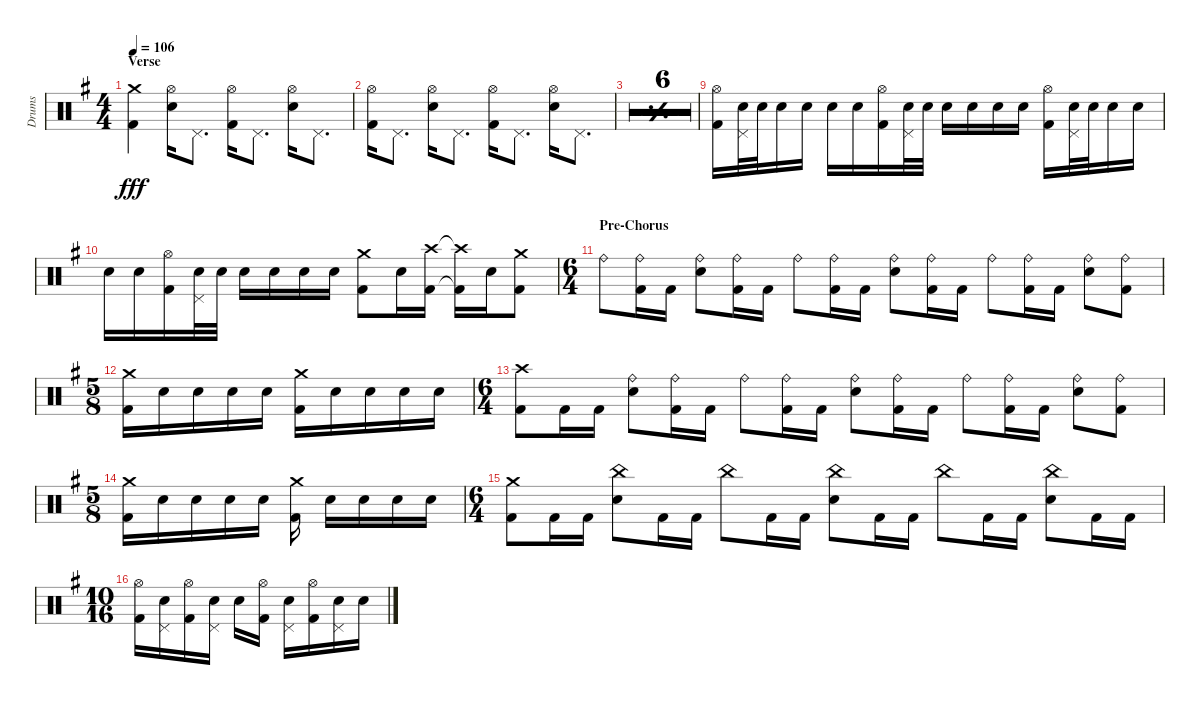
\defaultSystemsLayout 4
\bracketExtendMode groupsimilarinstruments
\otherSystemsTrackNameOrientation horizontal
\track ("Drumkit" "Drums") {multiBarRest instrument percussion}
\staff {score}
\articulation defaults
\ts (4 4)
\section ("" "Verse")
\tempo 106
\clef neutral
\ks g
("Kick (hit) 2"{acc forcenatural} "Crash medium (hit)"{acc forcenatural}).4{dy fff} ("Hi-Hat (open)"{acc forcenatural} "Snare (hit) 2"{acc forcenatural}).16 "Pedal Hi-Hat (hit)"{acc forcenatural}.8{d} ("Hi-Hat (open)"{acc forcenatural} "Kick (hit) 2"{acc forcenatural}).16 "Pedal Hi-Hat (hit)"{acc forcenatural}.8{d} ("Hi-Hat (open)"{acc forcenatural} "Snare (hit) 2"{acc forcenatural}).16 "Pedal Hi-Hat (hit)"{acc forcenatural}.8{d} |
("Hi-Hat (open)"{acc forcenatural} "Kick (hit) 2"{acc forcenatural}).16 "Pedal Hi-Hat (hit)"{acc forcenatural}.8{d} ("Hi-Hat (open)"{acc forcenatural} "Snare (hit) 2"{acc forcenatural}).16 "Pedal Hi-Hat (hit)"{acc forcenatural}.8{d} ("Hi-Hat (open)"{acc forcenatural} "Kick (hit) 2"{acc forcenatural}).16 "Pedal Hi-Hat (hit)"{acc forcenatural}.8{d} ("Hi-Hat (open)"{acc forcenatural} "Snare (hit) 2"{acc forcenatural}).16 "Pedal Hi-Hat (hit)"{acc forcenatural}.8{d} |
\simile simple
|
|
|
|
|
|
\simile none
("Hi-Hat (open)"{acc forcenatural} "Kick (hit) 2"{acc forcenatural}).16 ("Pedal Hi-Hat (hit)"{acc forcenatural} "Snare (hit) 2"{acc forcenatural}).32 "Snare (hit) 2"{acc forcenatural}.32 "Snare (hit) 2"{acc forcenatural}.16 "Snare (hit) 2"{acc forcenatural}.16 "Snare (hit) 2"{acc forcenatural}.16 "Snare (hit) 2"{acc forcenatural}.16 ("Hi-Hat (open)"{acc forcenatural} "Kick (hit) 2"{acc forcenatural}).16 ("Pedal Hi-Hat (hit)"{acc forcenatural} "Snare (hit) 2"{acc forcenatural}).32 "Snare (hit) 2"{acc forcenatural}.32 "Snare (hit) 2"{acc forcenatural}.16 "Snare (hit) 2"{acc forcenatural}.16 "Snare (hit) 2"{acc forcenatural}.16 "Snare (hit) 2"{acc forcenatural}.16 ("Hi-Hat (open)"{acc forcenatural} "Kick (hit) 2"{acc forcenatural}).16 ("Pedal Hi-Hat (hit)"{acc forcenatural} "Snare (hit) 2"{acc forcenatural}).32 "Snare (hit) 2"{acc forcenatural}.32 "Snare (hit) 2"{acc forcenatural}.16 "Snare (hit) 2"{acc forcenatural}.16 |
"Snare (hit) 2"{acc forcenatural}.16 "Snare (hit) 2"{acc forcenatural}.16 ("Hi-Hat (open)"{acc forcenatural} "Kick (hit) 2"{acc forcenatural}).16 ("Pedal Hi-Hat (hit)"{acc forcenatural} "Snare (hit) 2"{acc forcenatural}).32 "Snare (hit) 2"{acc forcenatural}.32 "Snare (hit) 2"{acc forcenatural}.16 "Snare (hit) 2"{acc forcenatural}.16 "Snare (hit) 2"{acc forcenatural}.16 "Snare (hit) 2"{acc forcenatural}.16 ("Kick (hit) 2"{acc forcenatural} "Crash medium (hit)"{acc forcenatural}).8 "Snare (hit) 2"{acc forcenatural}.16 ("Kick (hit) 2"{acc forcenatural} "Crash high (hit)"{acc forcenatural}).16 ("Kick (hit) 2"{t acc forcenatural} "Crash high (hit)"{t acc forcenatural}).16 "Snare (hit) 2"{acc forcenatural}.16 ("Kick (hit) 2"{acc forcenatural} "Crash medium (hit)"{acc forcenatural}).8 |
\ts (6 4)
\beaming (8 2 2 2 2 2 2)
\section ("" "Pre-Chorus")
"Ride (bell)"{acc forcenatural}.8 ("Kick (hit) 2"{acc forcenatural} "Ride (bell)"{acc forcenatural}).16 "Kick (hit) 2"{acc forcenatural}.16 ("Ride (bell)"{acc forcenatural} "Snare (hit) 2"{acc forcenatural}).8 ("Kick (hit) 2"{acc forcenatural} "Ride (bell)"{acc forcenatural}).16 "Kick (hit) 2"{acc forcenatural}.16 "Ride (bell)"{acc forcenatural}.8 ("Kick (hit) 2"{acc forcenatural} "Ride (bell)"{acc forcenatural}).16 "Kick (hit) 2"{acc forcenatural}.16 ("Ride (bell)"{acc forcenatural} "Snare (hit) 2"{acc forcenatural}).8 ("Kick (hit) 2"{acc forcenatural} "Ride (bell)"{acc forcenatural}).16 "Kick (hit) 2"{acc forcenatural}.16 "Ride (bell)"{acc forcenatural}.8 ("Kick (hit) 2"{acc forcenatural} "Ride (bell)"{acc forcenatural}).16 "Kick (hit) 2"{acc forcenatural}.16 ("Ride (bell)"{acc forcenatural} "Snare (hit) 2"{acc forcenatural}).8 ("Kick (hit) 2"{acc forcenatural} "Ride (bell)"{acc forcenatural}).8 |
\ts (5 8)
\beaming (8 2 2 2 2 2 2)
("Crash medium (hit)"{acc forcenatural} "Kick (hit) 2"{acc forcenatural}).16 "Snare (hit) 2"{acc forcenatural}.16 "Snare (hit) 2"{acc forcenatural}.16 "Snare (hit) 2"{acc forcenatural}.16{beam merge} "Snare (hit) 2"{acc forcenatural}.16{beam split} ("Crash medium (hit)"{acc forcenatural} "Kick (hit) 2"{acc forcenatural}).16 "Snare (hit) 2"{acc forcenatural}.16 "Snare (hit) 2"{acc forcenatural}.16{beam merge} "Snare (hit) 2"{acc forcenatural}.16 "Snare (hit) 2"{acc forcenatural}.16 |
\ts (6 4)
\beaming (8 2 2 2 2 2 2)
("Kick (hit) 2"{acc forcenatural} "Crash high (hit)"{acc forcenatural}).8 "Kick (hit) 2"{acc forcenatural}.16 "Kick (hit) 2"{acc forcenatural}.16 ("Ride (bell)"{acc forcenatural} "Snare (hit) 2"{acc forcenatural}).8 ("Kick (hit) 2"{acc forcenatural} "Ride (bell)"{acc forcenatural}).16 "Kick (hit) 2"{acc forcenatural}.16 "Ride (bell)"{acc forcenatural}.8 ("Kick (hit) 2"{acc forcenatural} "Ride (bell)"{acc forcenatural}).16 "Kick (hit) 2"{acc forcenatural}.16 ("Ride (bell)"{acc forcenatural} "Snare (hit) 2"{acc forcenatural}).8 ("Kick (hit) 2"{acc forcenatural} "Ride (bell)"{acc forcenatural}).16 "Kick (hit) 2"{acc forcenatural}.16 "Ride (bell)"{acc forcenatural}.8 ("Kick (hit) 2"{acc forcenatural} "Ride (bell)"{acc forcenatural}).16 "Kick (hit) 2"{acc forcenatural}.16 ("Ride (bell)"{acc forcenatural} "Snare (hit) 2"{acc forcenatural}).8 ("Kick (hit) 2"{acc forcenatural} "Ride (bell)"{acc forcenatural}).8 |
\ts (5 8)
\beaming (8 2 1 2)
("Crash medium (hit)"{acc forcenatural} "Kick (hit) 2"{acc forcenatural}).16 "Snare (hit) 2"{acc forcenatural}.16 "Snare (hit) 2"{acc forcenatural}.16 "Snare (hit) 2"{acc forcenatural}.16{beam merge} "Snare (hit) 2"{acc forcenatural}.16{beam split} ("Crash medium (hit)"{acc forcenatural} "Kick (hit) 2"{acc forcenatural}).16 "Snare (hit) 2"{acc forcenatural}.16 "Snare (hit) 2"{acc forcenatural}.16{beam merge} "Snare (hit) 2"{acc forcenatural}.16 "Snare (hit) 2"{acc forcenatural}.16 |
\ts (6 4)
\beaming (8 2 2 2 2 2 2)
("Crash medium (hit)"{acc forcenatural} "Kick (hit) 2"{acc forcenatural}).8 "Kick (hit) 2"{acc forcenatural}.16 "Kick (hit) 2"{acc forcenatural}.16 ("Snare (hit) 2"{acc forcenatural} "China (hit)"{acc forcenatural}).8 "Kick (hit) 2"{acc forcenatural}.16 "Kick (hit) 2"{acc forcenatural}.16 "China (hit)"{acc forcenatural}.8 "Kick (hit) 2"{acc forcenatural}.16 "Kick (hit) 2"{acc forcenatural}.16 ("Snare (hit) 2"{acc forcenatural} "China (hit)"{acc forcenatural}).8 "Kick (hit) 2"{acc forcenatural}.16 "Kick (hit) 2"{acc forcenatural}.16 "China (hit)"{acc forcenatural}.8 "Kick (hit) 2"{acc forcenatural}.16 "Kick (hit) 2"{acc forcenatural}.16 ("Snare (hit) 2"{acc forcenatural} "China (hit)"{acc forcenatural}).8 "Kick (hit) 2"{acc forcenatural}.16 "Kick (hit) 2"{acc forcenatural}.16 |
\ts (10 16)
\beaming (8 2 1 2)
("Hi-Hat (open)"{acc forcenatural} "Kick (hit) 2"{acc forcenatural}).16 ("Snare (hit) 2"{acc forcenatural} "Pedal Hi-Hat (hit)"{acc forcenatural}).16 ("Hi-Hat (open)"{acc forcenatural} "Kick (hit) 2"{acc forcenatural}).16 ("Snare (hit) 2"{acc forcenatural} "Pedal Hi-Hat (hit)"{acc forcenatural}).16 "Snare (hit) 2"{acc forcenatural}.16 ("Hi-Hat (open)"{acc forcenatural} "Kick (hit) 2"{acc forcenatural}).16 ("Snare (hit) 2"{acc forcenatural} "Pedal Hi-Hat (hit)"{acc forcenatural}).16 ("Hi-Hat (open)"{acc forcenatural} "Kick (hit) 2"{acc forcenatural}).16 ("Snare (hit) 2"{acc forcenatural} "Pedal Hi-Hat (hit)"{acc forcenatural}).16 "Snare (hit) 2"{acc forcenatural}.16
